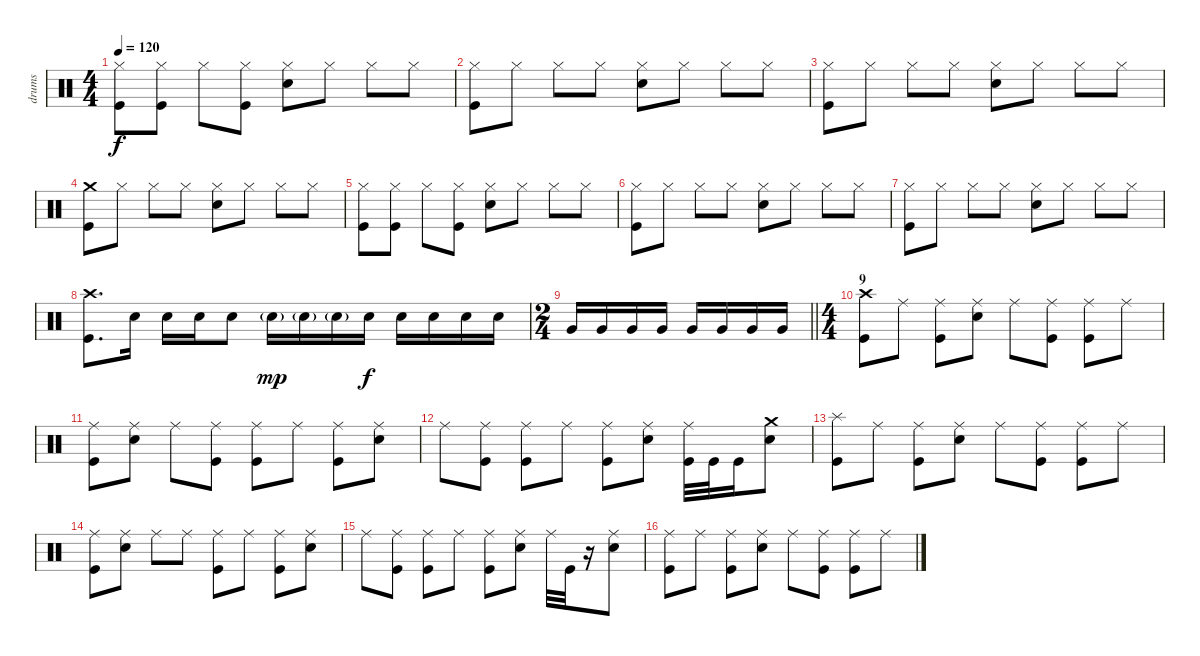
\track ("drums" "drums") {instrument percussion}
\staff {score}
\articulation defaults
\ts (4 4)
\tempo 120
\clef neutral
\ks c
("Hi-Hat (closed)" "Kick (hit)").8{dy f} ("Hi-Hat (closed)" "Kick (hit)").8 "Hi-Hat (closed)".8 ("Hi-Hat (closed)" "Kick (hit)").8 ("Hi-Hat (closed)" "Electric Snare (hit)").8 "Hi-Hat (closed)".8 "Hi-Hat (closed)".8 "Hi-Hat (closed)".8 |
("Hi-Hat (closed)" "Kick (hit)").8 "Hi-Hat (closed)".8 "Hi-Hat (closed)".8 "Hi-Hat (closed)".8 ("Hi-Hat (closed)" "Electric Snare (hit)").8 "Hi-Hat (closed)".8 "Hi-Hat (closed)".8 "Hi-Hat (closed)".8 |
("Hi-Hat (closed)" "Kick (hit)").8 "Hi-Hat (closed)".8 "Hi-Hat (closed)".8 "Hi-Hat (closed)".8 ("Hi-Hat (closed)" "Electric Snare (hit)").8 "Hi-Hat (closed)".8 "Hi-Hat (closed)".8 "Hi-Hat (closed)".8 |
("Crash medium (hit)" "Kick (hit)").8 "Hi-Hat (closed)".8 "Hi-Hat (closed)".8 "Hi-Hat (closed)".8 ("Hi-Hat (closed)" "Electric Snare (hit)").8 "Hi-Hat (closed)".8 "Hi-Hat (closed)".8 "Hi-Hat (closed)".8 |
("Hi-Hat (closed)" "Kick (hit)").8 ("Hi-Hat (closed)" "Kick (hit)").8 "Hi-Hat (closed)".8 ("Hi-Hat (closed)" "Kick (hit)").8 ("Hi-Hat (closed)" "Electric Snare (hit)").8 "Hi-Hat (closed)".8 "Hi-Hat (closed)".8 "Hi-Hat (closed)".8 |
("Hi-Hat (closed)" "Kick (hit)").8 "Hi-Hat (closed)".8 "Hi-Hat (closed)".8 "Hi-Hat (closed)".8 ("Hi-Hat (closed)" "Electric Snare (hit)").8 "Hi-Hat (closed)".8 "Hi-Hat (closed)".8 "Hi-Hat (closed)".8 |
("Hi-Hat (closed)" "Kick (hit)").8 "Hi-Hat (closed)".8 "Hi-Hat (closed)".8 "Hi-Hat (closed)".8 ("Hi-Hat (closed)" "Electric Snare (hit)").8 "Hi-Hat (closed)".8 "Hi-Hat (closed)".8 "Hi-Hat (closed)".8 |
("Crash high (hit)" "Kick (hit)").8{d} "Electric Snare (hit)".16 "Electric Snare (hit)".16 "Electric Snare (hit)".16 "Electric Snare (hit)".8 "Electric Snare (hit)"{g}.16{dy mp} "Electric Snare (hit)"{g}.16 "Electric Snare (hit)"{g}.16 "Electric Snare (hit)".16{dy f} "Electric Snare (hit)".16 "Electric Snare (hit)".16 "Electric Snare (hit)".16 "Electric Snare (hit)".16 |
\ts (2 4)
\barLineRight lightlight "Very Low Tom (hit)".16 "Very Low Tom (hit)".16 "Very Low Tom (hit)".16 "Very Low Tom (hit)".16 "Very Low Tom (hit)".16 "Very Low Tom (hit)".16 "Very Low Tom (hit)".16 "Very Low Tom (hit)".16
|
\ts (4 4)
\section ("" "9")
("Crash high (hit)" "Kick (hit)").8 "Ride (middle)".8 ("Ride (middle)" "Kick (hit)").8 ("Ride (middle)" "Electric Snare (hit)").8 "Ride (middle)".8 ("Ride (middle)" "Kick (hit)").8 ("Ride (middle)" "Kick (hit)").8 "Ride (middle)".8 |
("Ride (middle)" "Kick (hit)").8 ("Ride (middle)" "Electric Snare (hit)").8 "Ride (middle)".8 ("Ride (middle)" "Kick (hit)").8 ("Ride (middle)" "Kick (hit)").8 "Ride (middle)".8 ("Ride (middle)" "Kick (hit)").8 ("Ride (middle)" "Electric Snare (hit)").8 |
"Ride (middle)".8 ("Ride (middle)" "Kick (hit)").8 ("Ride (middle)" "Kick (hit)").8 "Ride (middle)".8 ("Ride (middle)" "Kick (hit)").8 ("Ride (middle)" "Electric Snare (hit)").8 ("Ride (middle)" "Kick (hit)").32 "Kick (hit)".32 "Kick (hit)".16 ("Crash medium (hit)" "Electric Snare (hit)").8 |
("Splash (hit)" "Kick (hit)").8 "Ride (middle)".8 ("Ride (middle)" "Kick (hit)").8 ("Ride (middle)" "Electric Snare (hit)").8 "Ride (middle)".8 ("Ride (middle)" "Kick (hit)").8 ("Ride (middle)" "Kick (hit)").8 "Ride (middle)".8 |
("Ride (middle)" "Kick (hit)").8 ("Ride (middle)" "Electric Snare (hit)").8 "Ride (middle)".8 "Ride (middle)".8 ("Ride (middle)" "Kick (hit)").8 "Ride (middle)".8 ("Ride (middle)" "Kick (hit)").8 ("Ride (middle)" "Electric Snare (hit)").8 |
"Ride (middle)".8 ("Ride (middle)" "Kick (hit)").8 ("Ride (middle)" "Kick (hit)").8 "Ride (middle)".8 ("Ride (middle)" "Kick (hit)").8 ("Ride (middle)" "Electric Snare (hit)").8 "Ride (middle)".32 "Kick (hit)".32 r.16 ("Ride (middle)" "Electric Snare (hit)").8 |
("Ride (middle)" "Kick (hit)").8 "Ride (middle)".8 ("Ride (middle)" "Kick (hit)").8 ("Ride (middle)" "Electric Snare (hit)").8 "Ride (middle)".8 ("Ride (middle)" "Kick (hit)").8 ("Ride (middle)" "Kick (hit)").8 "Ride (middle)".8
